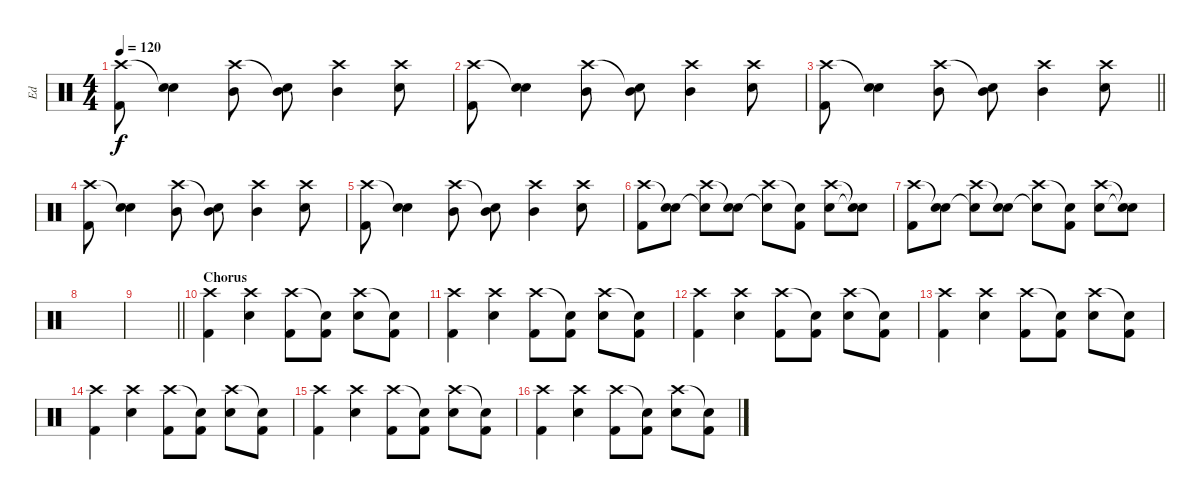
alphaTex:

\track ("Ed" "Ed") {instrument percussion}
\staff {score}
\articulation defaults
\ts (4 4)
\tempo 120
\clef neutral
\ks c
("Crash high (hit)" "Kick (hit) 2").8{dy f} ("Snare (hit)"{t} "Snare (hit) 2").4 ("Crash high (hit)" "Mid Tom (hit)").8 ("Snare (hit)"{t} "Mid Tom (hit)").8 ("Crash high (hit)" "Mid Tom (hit)").4 ("Crash high (hit)" "Snare (hit) 2").8 |
("Crash high (hit)" "Kick (hit) 2").8 ("Snare (hit)"{t} "Snare (hit) 2").4 ("Crash high (hit)" "Mid Tom (hit)").8 ("Snare (hit)"{t} "Mid Tom (hit)").8 ("Crash high (hit)" "Mid Tom (hit)").4 ("Crash high (hit)" "Snare (hit) 2").8 |
\barLineRight lightlight
("Crash high (hit)" "Kick (hit) 2").8 ("Snare (hit)"{t} "Snare (hit) 2").4 ("Crash high (hit)" "Mid Tom (hit)").8 ("Snare (hit)"{t} "Mid Tom (hit)").8 ("Crash high (hit)" "Mid Tom (hit)").4 ("Crash high (hit)" "Snare (hit) 2").8 |
("Crash high (hit)" "Kick (hit) 2").8 ("Snare (hit)"{t} "Snare (hit) 2").4 ("Crash high (hit)" "Mid Tom (hit)").8 ("Snare (hit)"{t} "Mid Tom (hit)").8 ("Crash high (hit)" "Mid Tom (hit)").4 ("Crash high (hit)" "Snare (hit) 2").8 |
("Crash high (hit)" "Kick (hit) 2").8 ("Snare (hit)"{t} "Snare (hit) 2").4 ("Crash high (hit)" "Mid Tom (hit)").8 ("Snare (hit)"{t} "Mid Tom (hit)").8 ("Crash high (hit)" "Mid Tom (hit)").4 ("Crash high (hit)" "Snare (hit) 2").8 |
("Crash high (hit)" "Kick (hit) 2").8 ("Snare (hit)"{t} "Snare (hit) 2").8 ("Crash high (hit)" "Snare (hit)"{t}).8 ("Snare (hit)"{t} "Snare (hit) 2").8 ("Crash high (hit)" "Snare (hit)"{t}).8 ("Snare (hit)"{t} "Kick (hit) 2").8 ("Crash high (hit)" "Snare (hit) 2").8 ("Snare (hit)"{t} "Snare (hit)"{t}).8 |
("Crash high (hit)" "Kick (hit) 2").8 ("Snare (hit)"{t} "Snare (hit) 2").8 ("Crash high (hit)" "Snare (hit)"{t}).8 ("Snare (hit)"{t} "Snare (hit) 2").8 ("Crash high (hit)" "Snare (hit)"{t}).8 ("Snare (hit)"{t} "Kick (hit) 2").8 ("Crash high (hit)" "Snare (hit) 2").8 ("Snare (hit)"{t} "Snare (hit)"{t}).8 |
|
\barLineRight lightlight
|
\section ("" "Chorus")
("Crash high (hit)" "Kick (hit) 2").4 ("Crash high (hit)" "Snare (hit) 2").4 ("Crash high (hit)" "Kick (hit) 2").8 ("Snare (hit)"{t} "Kick (hit) 2").8 ("Crash high (hit)" "Snare (hit) 2").8 ("Snare (hit)"{t} "Kick (hit) 2").8 |
("Crash high (hit)" "Kick (hit) 2").4 ("Crash high (hit)" "Snare (hit) 2").4 ("Crash high (hit)" "Kick (hit) 2").8 ("Snare (hit)"{t} "Kick (hit) 2").8 ("Crash high (hit)" "Snare (hit) 2").8 ("Snare (hit)"{t} "Kick (hit) 2").8 |
("Crash high (hit)" "Kick (hit) 2").4 ("Crash high (hit)" "Snare (hit) 2").4 ("Crash high (hit)" "Kick (hit) 2").8 ("Snare (hit)"{t} "Kick (hit) 2").8 ("Crash high (hit)" "Snare (hit) 2").8 ("Snare (hit)"{t} "Kick (hit) 2").8 |
("Crash high (hit)" "Kick (hit) 2").4 ("Crash high (hit)" "Snare (hit) 2").4 ("Crash high (hit)" "Kick (hit) 2").8 ("Snare (hit)"{t} "Kick (hit) 2").8 ("Crash high (hit)" "Snare (hit) 2").8 ("Snare (hit)"{t} "Kick (hit) 2").8 |
("Crash high (hit)" "Kick (hit) 2").4 ("Crash high (hit)" "Snare (hit) 2").4 ("Crash high (hit)" "Kick (hit) 2").8 ("Snare (hit)"{t} "Kick (hit) 2").8 ("Crash high (hit)" "Snare (hit) 2").8 ("Snare (hit)"{t} "Kick (hit) 2").8 |
("Crash high (hit)" "Kick (hit) 2").4 ("Crash high (hit)" "Snare (hit) 2").4 ("Crash high (hit)" "Kick (hit) 2").8 ("Snare (hit)"{t} "Kick (hit) 2").8 ("Crash high (hit)" "Snare (hit) 2").8 ("Snare (hit)"{t} "Kick (hit) 2").8 |
("Crash high (hit)" "Kick (hit) 2").4 ("Crash high (hit)" "Snare (hit) 2").4 ("Crash high (hit)" "Kick (hit) 2").8 ("Snare (hit)"{t} "Kick (hit) 2").8 ("Crash high (hit)" "Snare (hit) 2").8 ("Snare (hit)"{t} "Kick (hit) 2").8
